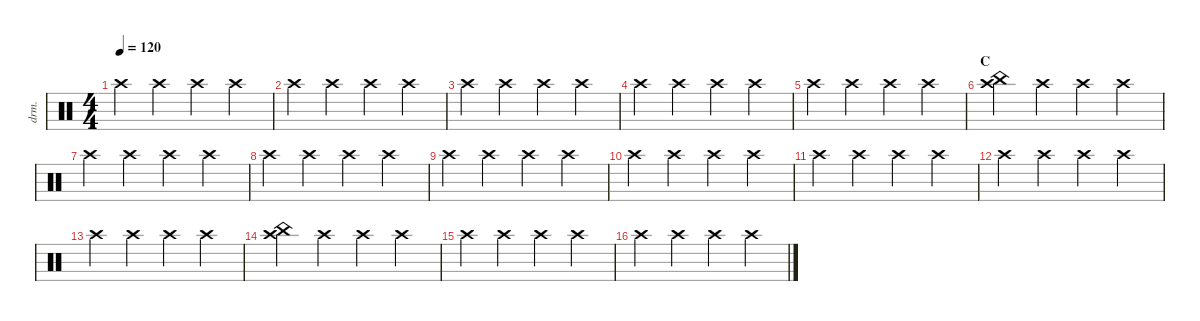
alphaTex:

\defaultSystemsLayout 4
\hideDynamics
\bracketExtendMode nobrackets
\otherSystemsTrackNameOrientation horizontal
\track ("Batterie" "drm.") {instrument percussion}
\staff {score}
\articulation defaults
\ts (4 4)
\tempo 120
\clef neutral
\ks c "Crash high (hit)".4{dy f} "Crash high (hit)".4 "Crash high (hit)".4 "Crash high (hit)".4
|
"Crash high (hit)".4 "Crash high (hit)".4 "Crash high (hit)".4 "Crash high (hit)".4 |
"Crash high (hit)".4 "Crash high (hit)".4 "Crash high (hit)".4 "Crash high (hit)".4 |
"Crash high (hit)".4 "Crash high (hit)".4 "Crash high (hit)".4 "Crash high (hit)".4 |
"Crash high (hit)".4 "Crash high (hit)".4 "Crash high (hit)".4 "Crash high (hit)".4 |
\section ("" "C")
("China (hit)" "Crash high (hit)").4 "Crash high (hit)".4 "Crash high (hit)".4 "Crash high (hit)".4 |
"Crash high (hit)".4 "Crash high (hit)".4 "Crash high (hit)".4 "Crash high (hit)".4 |
"Crash high (hit)".4 "Crash high (hit)".4 "Crash high (hit)".4 "Crash high (hit)".4 |
"Crash high (hit)".4 "Crash high (hit)".4 "Crash high (hit)".4 "Crash high (hit)".4 |
"Crash high (hit)".4 "Crash high (hit)".4 "Crash high (hit)".4 "Crash high (hit)".4 |
"Crash high (hit)".4 "Crash high (hit)".4 "Crash high (hit)".4 "Crash high (hit)".4 |
"Crash high (hit)".4 "Crash high (hit)".4 "Crash high (hit)".4 "Crash high (hit)".4 |
"Crash high (hit)".4 "Crash high (hit)".4 "Crash high (hit)".4 "Crash high (hit)".4 |
("China (hit)" "Crash high (hit)").4 "Crash high (hit)".4 "Crash high (hit)".4 "Crash high (hit)".4 |
"Crash high (hit)".4 "Crash high (hit)".4 "Crash high (hit)".4 "Crash high (hit)".4 |
"Crash high (hit)".4 "Crash high (hit)".4 "Crash high (hit)".4 "Crash high (hit)".4
